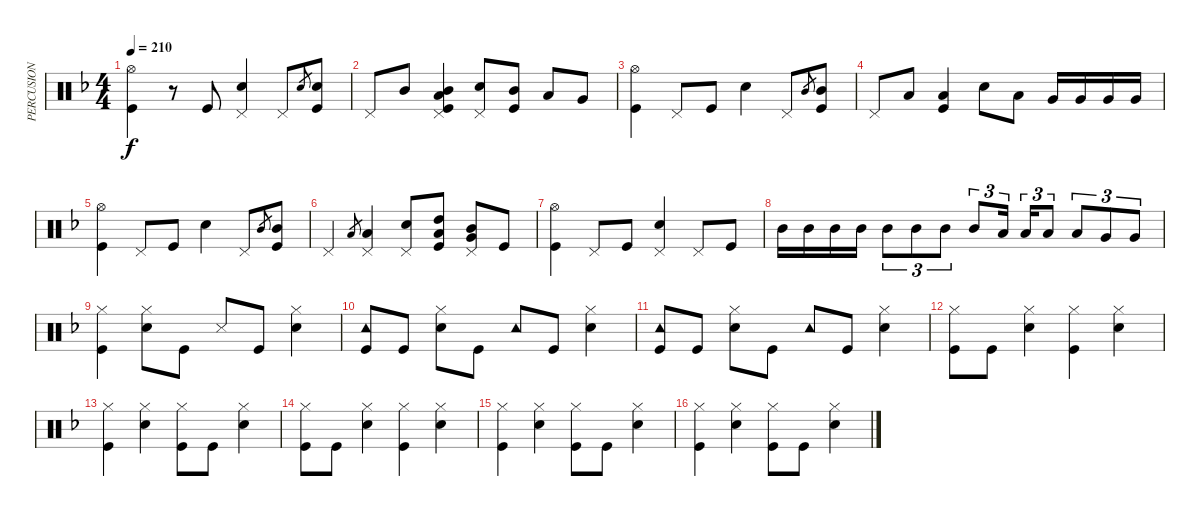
\track ("PERCUSION" "PERCUSION") {instrument percussion}
\staff {score}
\articulation defaults
\ts (4 4)
\tempo 210
\clef neutral
\ks f
("Hi-Hat (open)" "Kick (hit)").4{dy f} r.8 "Kick (hit)".8 ("Snare (hit) 2" "Pedal Hi-Hat (hit)").4 "Pedal Hi-Hat (hit)".8 "Snare (hit) 2".8{gr} ("Snare (hit) 2" "Kick (hit)").8 |
"Pedal Hi-Hat (hit)".8 "Mid Tom (hit)".8 ("Mid Tom (hit)" "Low Tom (hit)" "Kick (hit)" "Pedal Hi-Hat (hit)").4 ("Snare (hit) 2" "Pedal Hi-Hat (hit)").8 ("Mid Tom (hit)" "Kick (hit)").8 "Low Tom (hit)".8 "Very Low Tom (hit)".8 |
("Hi-Hat (open)" "Kick (hit)").4 "Pedal Hi-Hat (hit)".8 "Kick (hit)".8 "Snare (hit) 2".4 "Pedal Hi-Hat (hit)".8 "Mid Tom (hit)".8{gr} ("Mid Tom (hit)" "Kick (hit)").8 |
"Pedal Hi-Hat (hit)".8 "Low Tom (hit)".8 ("Low Tom (hit)" "Kick (hit)").4 "Snare (hit) 2".8 "Low Tom (hit)".8 "Very Low Tom (hit)".16 "Very Low Tom (hit)".16 "Very Low Tom (hit)".16 "Very Low Tom (hit)".16 |
("Hi-Hat (open)" "Kick (hit)").4 "Pedal Hi-Hat (hit)".8 "Kick (hit)".8 "Snare (hit) 2".4 "Pedal Hi-Hat (hit)".8 "Mid Tom (hit)".8{gr} ("Mid Tom (hit)" "Kick (hit)").8 |
"Pedal Hi-Hat (hit)".4 "Low Tom (hit)".8{gr} ("Low Tom (hit)" "Pedal Hi-Hat (hit)").4 ("Snare (hit) 2" "Pedal Hi-Hat (hit)").8 ("High Tom (hit)" "Low Tom (hit)" "Kick (hit)").8 ("Mid Tom (hit)" "Very Low Tom (hit)" "Pedal Hi-Hat (hit)").8 "Kick (hit)".8 |
("Hi-Hat (open)" "Kick (hit)").4 "Pedal Hi-Hat (hit)".8 "Kick (hit)".8 ("Snare (hit) 2" "Pedal Hi-Hat (hit)").4 "Pedal Hi-Hat (hit)".8 "Kick (hit)".8 |
"Mid Tom (hit)".16 "Mid Tom (hit)".16 "Mid Tom (hit)".16 "Mid Tom (hit)".16 "Mid Tom (hit)".8{tu (3 2)} "Mid Tom (hit)".8{tu (3 2)} "Mid Tom (hit)".8{tu (3 2)} "Mid Tom (hit)".8{tu (3 2)} "Low Tom (hit)".16{tu (3 2) beam splitsecondary} "Low Tom (hit)".16{tu (3 2)} "Low Tom (hit)".8{tu (3 2)} "Low Tom (hit)".8{tu (3 2)} "Very Low Tom (hit)".8{tu (3 2)} "Very Low Tom (hit)".8{tu (3 2)} |
("Hi-Hat (closed)" "Kick (hit)").4 ("Hi-Hat (closed)" "Snare (hit) 2").8 "Kick (hit)".8 "Snare (side stick) 3".8 "Kick (hit)".8 ("Hi-Hat (closed)" "Snare (hit) 2").4 |
("Tambourine (hit)" "Kick (hit)").8 "Kick (hit)".8 ("Hi-Hat (closed)" "Snare (hit) 2").8 "Kick (hit)".8 "Tambourine (hit)".8 "Kick (hit)".8 ("Hi-Hat (closed)" "Snare (hit) 2").4 |
("Tambourine (hit)" "Kick (hit)").8 "Kick (hit)".8 ("Hi-Hat (closed)" "Snare (hit) 2").8 "Kick (hit)".8 "Tambourine (hit)".8 "Kick (hit)".8 ("Hi-Hat (closed)" "Snare (hit) 2").4 |
("Hi-Hat (closed)" "Kick (hit)").8 "Kick (hit)".8 ("Hi-Hat (closed)" "Snare (hit) 2").4 ("Hi-Hat (closed)" "Kick (hit)").4 ("Hi-Hat (closed)" "Snare (hit) 2").4 |
("Hi-Hat (closed)" "Kick (hit)").4 ("Hi-Hat (closed)" "Snare (hit) 2").4 ("Hi-Hat (closed)" "Kick (hit)").8 "Kick (hit)".8 ("Hi-Hat (closed)" "Snare (hit) 2").4 |
("Hi-Hat (closed)" "Kick (hit)").8 "Kick (hit)".8 ("Hi-Hat (closed)" "Snare (hit) 2").4 ("Hi-Hat (closed)" "Kick (hit)").4 ("Hi-Hat (closed)" "Snare (hit) 2").4 |
("Hi-Hat (closed)" "Kick (hit)").4 ("Hi-Hat (closed)" "Snare (hit) 2").4 ("Hi-Hat (closed)" "Kick (hit)").8 "Kick (hit)".8 ("Hi-Hat (closed)" "Snare (hit) 2").4 |
("Hi-Hat (closed)" "Kick (hit)").4 ("Hi-Hat (closed)" "Snare (hit) 2").4 ("Hi-Hat (closed)" "Kick (hit)").8 "Kick (hit)".8 ("Hi-Hat (closed)" "Snare (hit) 2").4
